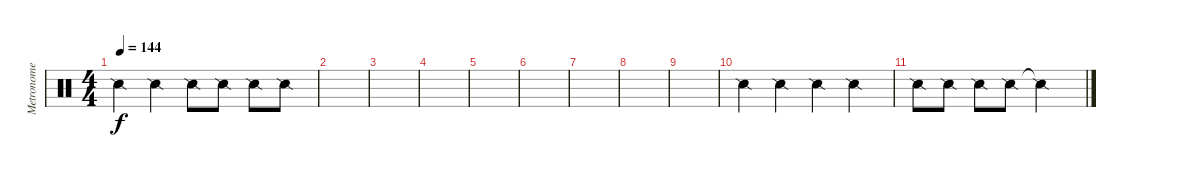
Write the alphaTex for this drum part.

\track ("Metronome" "Metronome") {instrument percussion}
\staff {score}
\articulation defaults
\ts (4 4)
\tempo 144
\clef neutral
\ks c "Snare (side stick) 2".4{dy f} "Snare (side stick) 2".4 "Snare (side stick) 2".8 "Snare (side stick) 2".8 "Snare (side stick) 2".8 "Snare (side stick) 2".8
|
|
|
|
|
|
|
|
|
"Snare (side stick) 2".4 "Snare (side stick) 2".4 "Snare (side stick) 2".4 "Snare (side stick) 2".4 |
"Snare (side stick) 2".8 "Snare (side stick) 2".8 "Snare (side stick) 2".8 "Snare (side stick) 2".8 "Snare (side stick) 2"{t}.2
